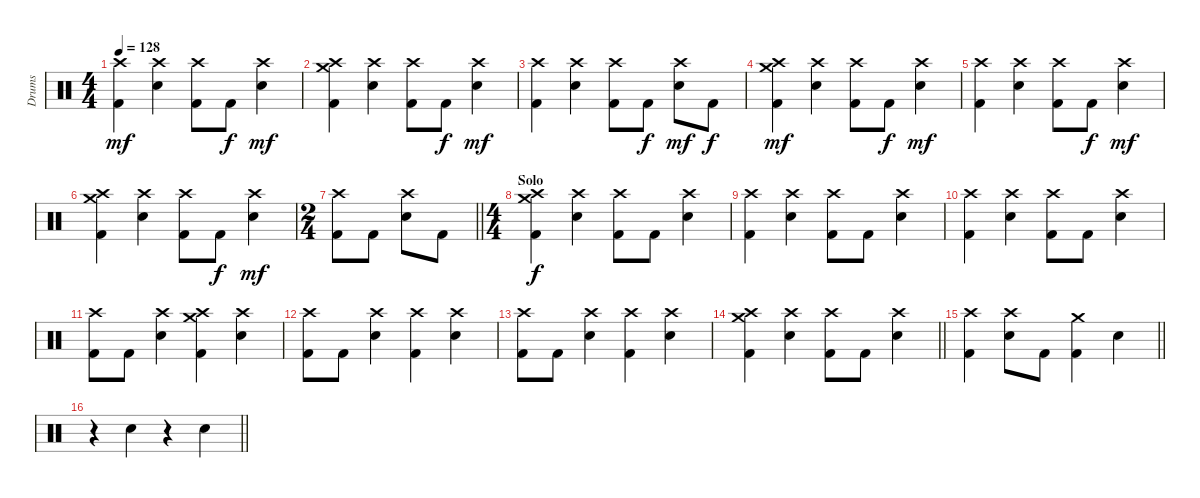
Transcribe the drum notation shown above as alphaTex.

\track ("Drums" "Drums") {instrument percussion}
\staff {score}
\articulation defaults
\ts (4 4)
\tempo 128
\clef neutral
\ks c
("Crash high (hit)" "Kick (hit) 2").4{dy mf} ("Crash high (hit)" "Electric Snare (hit)").4 ("Crash high (hit)" "Kick (hit) 2").8 "Kick (hit) 2".8{dy f} ("Crash high (hit)" "Electric Snare (hit)").4{dy mf} |
("Crash medium (hit)" "Crash high (hit)" "Kick (hit) 2").4 ("Crash high (hit)" "Electric Snare (hit)").4 ("Crash high (hit)" "Kick (hit) 2").8 "Kick (hit) 2".8{dy f} ("Crash high (hit)" "Electric Snare (hit)").4{dy mf} |
("Crash high (hit)" "Kick (hit) 2").4 ("Crash high (hit)" "Electric Snare (hit)").4 ("Crash high (hit)" "Kick (hit) 2").8 "Kick (hit) 2".8{dy f} ("Crash high (hit)" "Electric Snare (hit)").8{dy mf} "Kick (hit) 2".8{dy f} |
("Crash medium (hit)" "Crash high (hit)" "Kick (hit) 2").4{dy mf} ("Crash high (hit)" "Electric Snare (hit)").4 ("Crash high (hit)" "Kick (hit) 2").8 "Kick (hit) 2".8{dy f} ("Crash high (hit)" "Electric Snare (hit)").4{dy mf} |
("Crash high (hit)" "Kick (hit) 2").4 ("Crash high (hit)" "Electric Snare (hit)").4 ("Crash high (hit)" "Kick (hit) 2").8 "Kick (hit) 2".8{dy f} ("Crash high (hit)" "Electric Snare (hit)").4{dy mf} |
("Crash medium (hit)" "Crash high (hit)" "Kick (hit) 2").4 ("Crash high (hit)" "Electric Snare (hit)").4 ("Crash high (hit)" "Kick (hit) 2").8 "Kick (hit) 2".8{dy f} ("Crash high (hit)" "Electric Snare (hit)").4{dy mf} |
\ts (2 4)
\barLineRight lightlight
("Crash high (hit)" "Kick (hit) 2").8 "Kick (hit) 2".8 ("Crash high (hit)" "Electric Snare (hit)").8 "Kick (hit) 2".8 |
\ts (4 4)
\section ("" "Solo")
("Crash medium (hit)" "Crash high (hit)" "Kick (hit) 2").4{dy f} ("Crash high (hit)" "Electric Snare (hit)").4 ("Crash high (hit)" "Kick (hit) 2").8 "Kick (hit) 2".8 ("Crash high (hit)" "Electric Snare (hit)").4 |
("Crash high (hit)" "Kick (hit) 2").4 ("Crash high (hit)" "Electric Snare (hit)").4 ("Crash high (hit)" "Kick (hit) 2").8 "Kick (hit) 2".8 ("Crash high (hit)" "Electric Snare (hit)").4 |
("Crash high (hit)" "Kick (hit) 2").4 ("Crash high (hit)" "Electric Snare (hit)").4 ("Crash high (hit)" "Kick (hit) 2").8 "Kick (hit) 2".8 ("Crash high (hit)" "Electric Snare (hit)").4 |
("Crash high (hit)" "Kick (hit) 2").8 "Kick (hit) 2".8 ("Crash high (hit)" "Electric Snare (hit)").4 ("Crash medium (hit)" "Crash high (hit)" "Kick (hit) 2").4 ("Crash high (hit)" "Electric Snare (hit)").4 |
("Crash high (hit)" "Kick (hit) 2").8 "Kick (hit) 2".8 ("Crash high (hit)" "Electric Snare (hit)").4 ("Crash high (hit)" "Kick (hit) 2").4 ("Crash high (hit)" "Electric Snare (hit)").4 |
("Crash high (hit)" "Kick (hit) 2").8 "Kick (hit) 2".8 ("Crash high (hit)" "Electric Snare (hit)").4 ("Crash high (hit)" "Kick (hit) 2").4 ("Crash high (hit)" "Electric Snare (hit)").4 |
\barLineRight lightlight
("Crash medium (hit)" "Crash high (hit)" "Kick (hit) 2").4 ("Crash high (hit)" "Electric Snare (hit)").4 ("Crash high (hit)" "Kick (hit) 2").8 "Kick (hit) 2".8 ("Crash high (hit)" "Electric Snare (hit)").4 |
\barLineRight lightlight
("Crash high (hit)" "Kick (hit) 2").4 ("Crash high (hit)" "Electric Snare (hit)").8 "Kick (hit) 2".8 ("Crash medium (hit)" "Kick (hit) 2").4 "Electric Snare (hit)".4 |
\barLineRight lightlight
r.4 "Electric Snare (hit)".4 r.4 "Electric Snare (hit)".4
